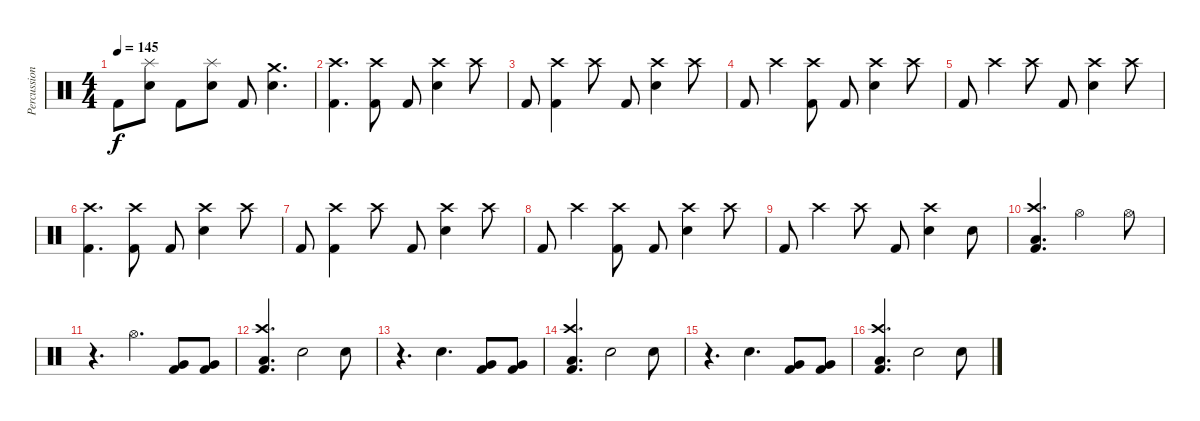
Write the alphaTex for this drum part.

\track ("Percussion" "Percussion") {instrument percussion}
\staff {score}
\articulation defaults
\ts (4 4)
\tempo 145
\clef neutral
\ks c "Kick (hit) 2".8{dy f}
("Splash (hit)" "Electric Snare (hit)").8 "Kick (hit) 2".8 ("Splash (hit)" "Electric Snare (hit)").8 "Kick (hit) 2".8 ("Crash medium (hit)" "Electric Snare (hit)").4{d} |
("Crash high (hit)" "Kick (hit) 2").4{d} ("Crash high (hit)" "Kick (hit) 2").8 "Kick (hit) 2".8 ("Crash high (hit)" "Electric Snare (hit)").4 "Crash high (hit)".8 |
"Kick (hit) 2".8 ("Crash high (hit)" "Kick (hit) 2").4 "Crash high (hit)".8 "Kick (hit) 2".8 ("Crash high (hit)" "Electric Snare (hit)").4 "Crash high (hit)".8 |
"Kick (hit) 2".8 "Crash high (hit)".4 ("Crash high (hit)" "Kick (hit) 2").8 "Kick (hit) 2".8 ("Crash high (hit)" "Electric Snare (hit)").4 "Crash high (hit)".8 |
"Kick (hit) 2".8 "Crash high (hit)".4 "Crash high (hit)".8 "Kick (hit) 2".8 ("Crash high (hit)" "Electric Snare (hit)").4 "Crash high (hit)".8 |
("Crash high (hit)" "Kick (hit) 2").4{d} ("Crash high (hit)" "Kick (hit) 2").8 "Kick (hit) 2".8 ("Crash high (hit)" "Electric Snare (hit)").4 "Crash high (hit)".8 |
"Kick (hit) 2".8 ("Crash high (hit)" "Kick (hit) 2").4 "Crash high (hit)".8 "Kick (hit) 2".8 ("Crash high (hit)" "Electric Snare (hit)").4 "Crash high (hit)".8 |
"Kick (hit) 2".8 "Crash high (hit)".4 ("Crash high (hit)" "Kick (hit) 2").8 "Kick (hit) 2".8 ("Crash high (hit)" "Electric Snare (hit)").4 "Crash high (hit)".8 |
"Kick (hit) 2".8 "Crash high (hit)".4 "Crash high (hit)".8 "Kick (hit) 2".8 ("Crash high (hit)" "Electric Snare (hit)").4 "Electric Snare (hit)".8 |
("Crash high (hit)" "Low Floor Tom (hit)" "Kick (hit) 2").4{d} "Hi-Hat (open)".2 "Hi-Hat (open)".8 |
r.4{d} "Hi-Hat (open)".4{d} ("Very Low Tom (hit)" "Kick (hit) 2").8 ("Very Low Tom (hit)" "Kick (hit) 2").8 |
("Crash high (hit)" "Low Floor Tom (hit)" "Kick (hit) 2").4{d} "Electric Snare (hit)".2 "Electric Snare (hit)".8 |
r.4{d} "Electric Snare (hit)".4{d} ("Very Low Tom (hit)" "Kick (hit) 2").8 ("Very Low Tom (hit)" "Kick (hit) 2").8 |
("Crash high (hit)" "Low Floor Tom (hit)" "Kick (hit) 2").4{d} "Electric Snare (hit)".2 "Electric Snare (hit)".8 |
r.4{d} "Electric Snare (hit)".4{d} ("Very Low Tom (hit)" "Kick (hit) 2").8 ("Very Low Tom (hit)" "Kick (hit) 2").8 |
("Crash high (hit)" "Low Floor Tom (hit)" "Kick (hit) 2").4{d} "Electric Snare (hit)".2 "Electric Snare (hit)".8
